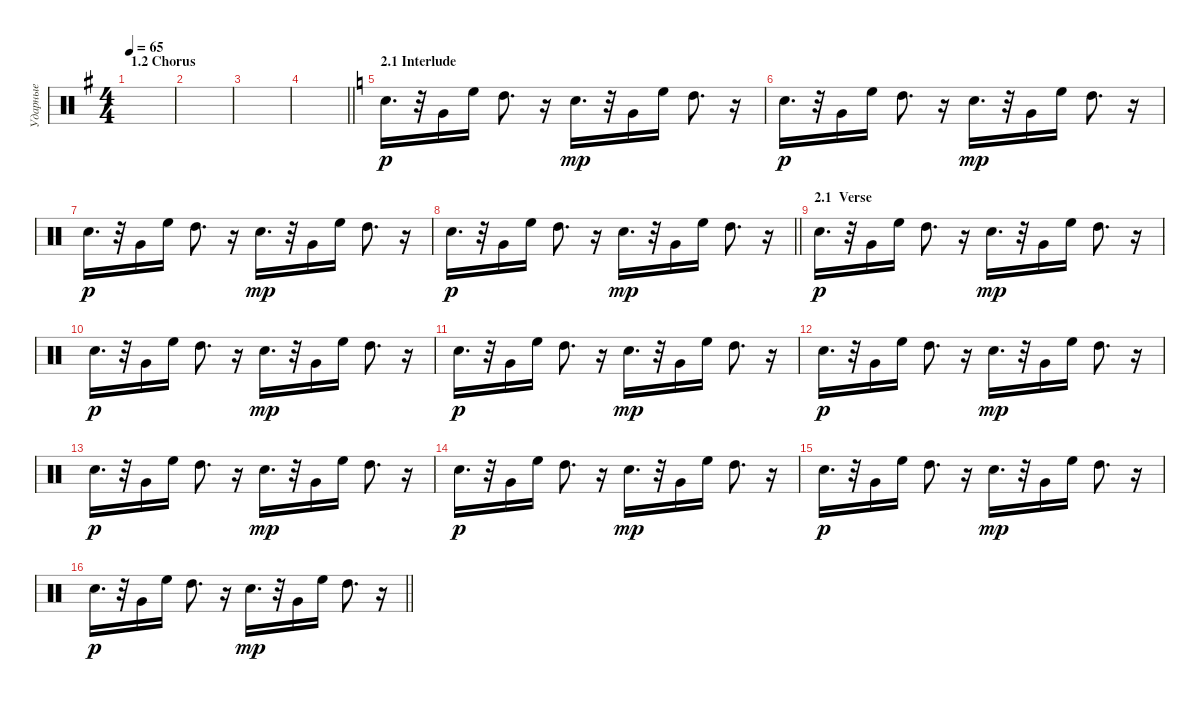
\track ("Ударные" "Ударные") {instrument percussion}
\staff {score}
\articulation defaults
\ts (4 4)
\section ("" "1.2 Chorus")
\tempo 65
\clef neutral
\ks eminor
|
|
|
\barLineRight lightlight
|
\section ("" "2.1 Interlude")
\ks c "Electric Snare (hit)".16{d dy p}
r.32 "Very Low Tom (hit)".16 "High Floor Tom (hit)".16 "High Tom (hit)".8{d} r.16 "Electric Snare (hit)".16{d dy mp} r.32 "Very Low Tom (hit)".16 "High Floor Tom (hit)".16 "High Tom (hit)".8{d} r.16 |
"Electric Snare (hit)".16{d dy p} r.32 "Very Low Tom (hit)".16 "High Floor Tom (hit)".16 "High Tom (hit)".8{d} r.16 "Electric Snare (hit)".16{d dy mp} r.32 "Very Low Tom (hit)".16 "High Floor Tom (hit)".16 "High Tom (hit)".8{d} r.16 |
"Electric Snare (hit)".16{d dy p} r.32 "Very Low Tom (hit)".16 "High Floor Tom (hit)".16 "High Tom (hit)".8{d} r.16 "Electric Snare (hit)".16{d dy mp} r.32 "Very Low Tom (hit)".16 "High Floor Tom (hit)".16 "High Tom (hit)".8{d} r.16 |
\barLineRight lightlight "Electric Snare (hit)".16{d dy p}
r.32 "Very Low Tom (hit)".16 "High Floor Tom (hit)".16 "High Tom (hit)".8{d} r.16 "Electric Snare (hit)".16{d dy mp} r.32 "Very Low Tom (hit)".16 "High Floor Tom (hit)".16 "High Tom (hit)".8{d} r.16 |
\section ("" "2.1  Verse")
"Electric Snare (hit)".16{d dy p} r.32 "Very Low Tom (hit)".16 "High Floor Tom (hit)".16 "High Tom (hit)".8{d} r.16 "Electric Snare (hit)".16{d dy mp} r.32 "Very Low Tom (hit)".16 "High Floor Tom (hit)".16 "High Tom (hit)".8{d} r.16 |
"Electric Snare (hit)".16{d dy p} r.32 "Very Low Tom (hit)".16 "High Floor Tom (hit)".16 "High Tom (hit)".8{d} r.16 "Electric Snare (hit)".16{d dy mp} r.32 "Very Low Tom (hit)".16 "High Floor Tom (hit)".16 "High Tom (hit)".8{d} r.16 |
"Electric Snare (hit)".16{d dy p} r.32 "Very Low Tom (hit)".16 "High Floor Tom (hit)".16 "High Tom (hit)".8{d} r.16 "Electric Snare (hit)".16{d dy mp} r.32 "Very Low Tom (hit)".16 "High Floor Tom (hit)".16 "High Tom (hit)".8{d} r.16 |
"Electric Snare (hit)".16{d dy p} r.32 "Very Low Tom (hit)".16 "High Floor Tom (hit)".16 "High Tom (hit)".8{d} r.16 "Electric Snare (hit)".16{d dy mp} r.32 "Very Low Tom (hit)".16 "High Floor Tom (hit)".16 "High Tom (hit)".8{d} r.16 |
"Electric Snare (hit)".16{d dy p} r.32 "Very Low Tom (hit)".16 "High Floor Tom (hit)".16 "High Tom (hit)".8{d} r.16 "Electric Snare (hit)".16{d dy mp} r.32 "Very Low Tom (hit)".16 "High Floor Tom (hit)".16 "High Tom (hit)".8{d} r.16 |
"Electric Snare (hit)".16{d dy p} r.32 "Very Low Tom (hit)".16 "High Floor Tom (hit)".16 "High Tom (hit)".8{d} r.16 "Electric Snare (hit)".16{d dy mp} r.32 "Very Low Tom (hit)".16 "High Floor Tom (hit)".16 "High Tom (hit)".8{d} r.16 |
"Electric Snare (hit)".16{d dy p} r.32 "Very Low Tom (hit)".16 "High Floor Tom (hit)".16 "High Tom (hit)".8{d} r.16 "Electric Snare (hit)".16{d dy mp} r.32 "Very Low Tom (hit)".16 "High Floor Tom (hit)".16 "High Tom (hit)".8{d} r.16 |
\barLineRight lightlight "Electric Snare (hit)".16{d dy p}
r.32 "Very Low Tom (hit)".16 "High Floor Tom (hit)".16 "High Tom (hit)".8{d} r.16 "Electric Snare (hit)".16{d dy mp} r.32 "Very Low Tom (hit)".16 "High Floor Tom (hit)".16 "High Tom (hit)".8{d} r.16
